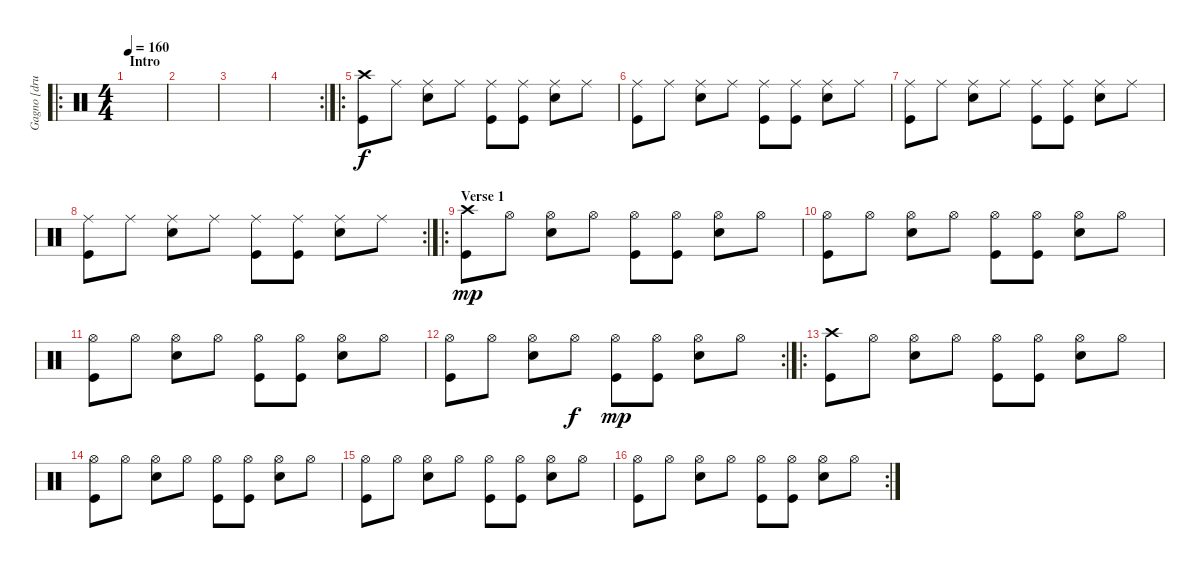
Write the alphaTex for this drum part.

\track ("Gagno [drums]" "Gagno [dru") {instrument percussion}
\staff {score}
\articulation defaults
\ro
\ts (4 4)
\section ("" "Intro")
\tempo 160
\clef neutral
\ks c
|
|
|
\rc 2
|
\ro
("Crash high (hit)" "Kick (hit)").8 "Ride (middle)".8 ("Ride (middle)" "Snare (hit) 2").8 "Ride (middle)".8 ("Ride (middle)" "Kick (hit)").8 ("Ride (middle)" "Kick (hit)").8 ("Ride (middle)" "Snare (hit) 2").8 "Ride (middle)".8 |
("Ride (middle)" "Kick (hit)").8 "Ride (middle)".8 ("Ride (middle)" "Snare (hit) 2").8 "Ride (middle)".8 ("Ride (middle)" "Kick (hit)").8 ("Ride (middle)" "Kick (hit)").8 ("Ride (middle)" "Snare (hit) 2").8 "Ride (middle)".8 |
("Ride (middle)" "Kick (hit)").8 "Ride (middle)".8 ("Ride (middle)" "Snare (hit) 2").8 "Ride (middle)".8 ("Ride (middle)" "Kick (hit)").8 ("Ride (middle)" "Kick (hit)").8 ("Ride (middle)" "Snare (hit) 2").8 "Ride (middle)".8 |
\rc 2
("Ride (middle)" "Kick (hit)").8 "Ride (middle)".8 ("Ride (middle)" "Snare (hit) 2").8 "Ride (middle)".8 ("Ride (middle)" "Kick (hit)").8 ("Ride (middle)" "Kick (hit)").8 ("Ride (middle)" "Snare (hit) 2").8 "Ride (middle)".8 |
\ro
\section ("" "Verse 1")
("Crash high (hit)" "Kick (hit)").8{dy mp} "Hi-Hat (open)".8 ("Hi-Hat (open)" "Snare (hit) 2").8 "Hi-Hat (open)".8 ("Hi-Hat (open)" "Kick (hit)").8 ("Hi-Hat (open)" "Kick (hit)").8 ("Hi-Hat (open)" "Snare (hit) 2").8 "Hi-Hat (open)".8 |
("Hi-Hat (open)" "Kick (hit)").8 "Hi-Hat (open)".8 ("Hi-Hat (open)" "Snare (hit) 2").8 "Hi-Hat (open)".8 ("Hi-Hat (open)" "Kick (hit)").8 ("Hi-Hat (open)" "Kick (hit)").8 ("Hi-Hat (open)" "Snare (hit) 2").8 "Hi-Hat (open)".8 |
("Hi-Hat (open)" "Kick (hit)").8 "Hi-Hat (open)".8 ("Hi-Hat (open)" "Snare (hit) 2").8 "Hi-Hat (open)".8 ("Hi-Hat (open)" "Kick (hit)").8 ("Hi-Hat (open)" "Kick (hit)").8 ("Hi-Hat (open)" "Snare (hit) 2").8 "Hi-Hat (open)".8 |
\rc 2
("Hi-Hat (open)" "Kick (hit)").8 "Hi-Hat (open)".8 ("Hi-Hat (open)" "Snare (hit) 2").8 "Hi-Hat (open)".8{dy f} ("Hi-Hat (open)" "Kick (hit)").8{dy mp} ("Hi-Hat (open)" "Kick (hit)").8 ("Hi-Hat (open)" "Snare (hit) 2").8 "Hi-Hat (open)".8 |
\ro
("Crash high (hit)" "Kick (hit)").8 "Hi-Hat (open)".8 ("Hi-Hat (open)" "Snare (hit) 2").8 "Hi-Hat (open)".8 ("Hi-Hat (open)" "Kick (hit)").8 ("Hi-Hat (open)" "Kick (hit)").8 ("Hi-Hat (open)" "Snare (hit) 2").8 "Hi-Hat (open)".8 |
("Hi-Hat (open)" "Kick (hit)").8 "Hi-Hat (open)".8 ("Hi-Hat (open)" "Snare (hit) 2").8 "Hi-Hat (open)".8 ("Hi-Hat (open)" "Kick (hit)").8 ("Hi-Hat (open)" "Kick (hit)").8 ("Hi-Hat (open)" "Snare (hit) 2").8 "Hi-Hat (open)".8 |
("Hi-Hat (open)" "Kick (hit)").8 "Hi-Hat (open)".8 ("Hi-Hat (open)" "Snare (hit) 2").8 "Hi-Hat (open)".8 ("Hi-Hat (open)" "Kick (hit)").8 ("Hi-Hat (open)" "Kick (hit)").8 ("Hi-Hat (open)" "Snare (hit) 2").8 "Hi-Hat (open)".8 |
\rc 2
("Hi-Hat (open)" "Kick (hit)").8 "Hi-Hat (open)".8 ("Hi-Hat (open)" "Snare (hit) 2").8 "Hi-Hat (open)".8 ("Hi-Hat (open)" "Kick (hit)").8 ("Hi-Hat (open)" "Kick (hit)").8 ("Hi-Hat (open)" "Snare (hit) 2").8 "Hi-Hat (open)".8
